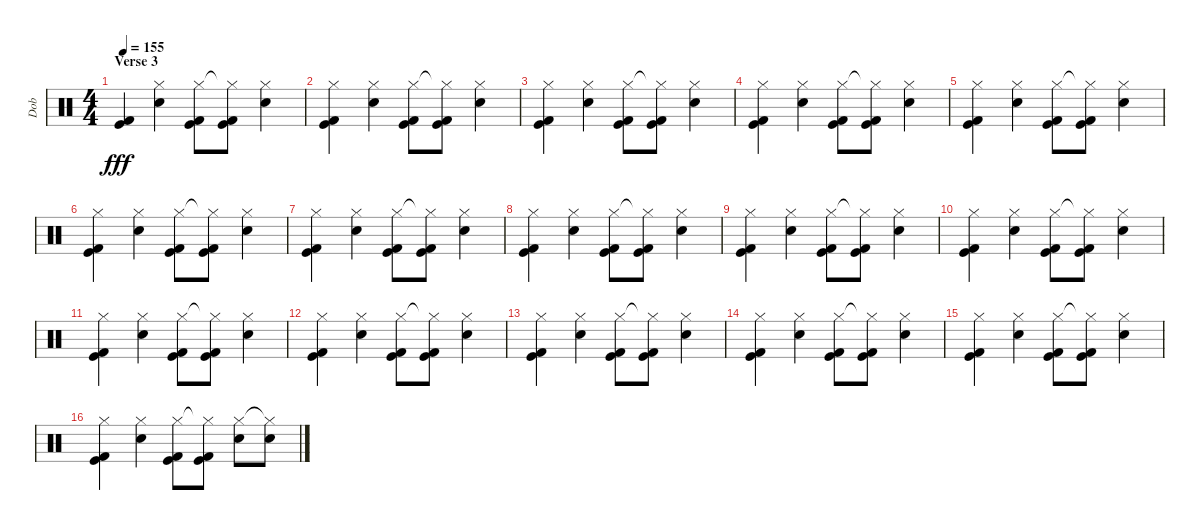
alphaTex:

\track ("Dob" "Dob") {instrument percussion}
\staff {score}
\articulation defaults
\ts (4 4)
\section ("" "Verse 3")
\tempo 155
\clef neutral
\ks c
("Kick (hit) 2" "Kick (hit)").4{dy fff} ("Hi-Hat (closed)" "Electric Snare (hit)").4 ("Hi-Hat (closed)" "Kick (hit) 2" "Kick (hit)").8 ("Hi-Hat (closed)"{t} "Kick (hit) 2" "Kick (hit)").8 ("Hi-Hat (closed)" "Electric Snare (hit)").4 |
("Hi-Hat (closed)" "Kick (hit) 2" "Kick (hit)").4 ("Hi-Hat (closed)" "Electric Snare (hit)").4 ("Hi-Hat (closed)" "Kick (hit) 2" "Kick (hit)").8 ("Hi-Hat (closed)"{t} "Kick (hit) 2" "Kick (hit)").8 ("Hi-Hat (closed)" "Electric Snare (hit)").4 |
("Hi-Hat (closed)" "Kick (hit) 2" "Kick (hit)").4 ("Hi-Hat (closed)" "Electric Snare (hit)").4 ("Hi-Hat (closed)" "Kick (hit) 2" "Kick (hit)").8 ("Hi-Hat (closed)"{t} "Kick (hit) 2" "Kick (hit)").8 ("Hi-Hat (closed)" "Electric Snare (hit)").4 |
("Hi-Hat (closed)" "Kick (hit) 2" "Kick (hit)").4 ("Hi-Hat (closed)" "Electric Snare (hit)").4 ("Hi-Hat (closed)" "Kick (hit) 2" "Kick (hit)").8 ("Hi-Hat (closed)"{t} "Kick (hit) 2" "Kick (hit)").8 ("Hi-Hat (closed)" "Electric Snare (hit)").4 |
("Hi-Hat (closed)" "Kick (hit) 2" "Kick (hit)").4 ("Hi-Hat (closed)" "Electric Snare (hit)").4 ("Hi-Hat (closed)" "Kick (hit) 2" "Kick (hit)").8 ("Hi-Hat (closed)"{t} "Kick (hit) 2" "Kick (hit)").8 ("Hi-Hat (closed)" "Electric Snare (hit)").4 |
("Hi-Hat (closed)" "Kick (hit) 2" "Kick (hit)").4 ("Hi-Hat (closed)" "Electric Snare (hit)").4 ("Hi-Hat (closed)" "Kick (hit) 2" "Kick (hit)").8 ("Hi-Hat (closed)"{t} "Kick (hit) 2" "Kick (hit)").8 ("Hi-Hat (closed)" "Electric Snare (hit)").4 |
("Hi-Hat (closed)" "Kick (hit) 2" "Kick (hit)").4 ("Hi-Hat (closed)" "Electric Snare (hit)").4 ("Hi-Hat (closed)" "Kick (hit) 2" "Kick (hit)").8 ("Hi-Hat (closed)"{t} "Kick (hit) 2" "Kick (hit)").8 ("Hi-Hat (closed)" "Electric Snare (hit)").4 |
("Hi-Hat (closed)" "Kick (hit) 2" "Kick (hit)").4 ("Hi-Hat (closed)" "Electric Snare (hit)").4 ("Hi-Hat (closed)" "Kick (hit) 2" "Kick (hit)").8 ("Hi-Hat (closed)"{t} "Kick (hit) 2" "Kick (hit)").8 ("Hi-Hat (closed)" "Electric Snare (hit)").4 |
("Hi-Hat (closed)" "Kick (hit) 2" "Kick (hit)").4 ("Hi-Hat (closed)" "Electric Snare (hit)").4 ("Hi-Hat (closed)" "Kick (hit) 2" "Kick (hit)").8 ("Hi-Hat (closed)"{t} "Kick (hit) 2" "Kick (hit)").8 ("Hi-Hat (closed)" "Electric Snare (hit)").4 |
("Hi-Hat (closed)" "Kick (hit) 2" "Kick (hit)").4 ("Hi-Hat (closed)" "Electric Snare (hit)").4 ("Hi-Hat (closed)" "Kick (hit) 2" "Kick (hit)").8 ("Hi-Hat (closed)"{t} "Kick (hit) 2" "Kick (hit)").8 ("Hi-Hat (closed)" "Electric Snare (hit)").4 |
("Hi-Hat (closed)" "Kick (hit) 2" "Kick (hit)").4 ("Hi-Hat (closed)" "Electric Snare (hit)").4 ("Hi-Hat (closed)" "Kick (hit) 2" "Kick (hit)").8 ("Hi-Hat (closed)"{t} "Kick (hit) 2" "Kick (hit)").8 ("Hi-Hat (closed)" "Electric Snare (hit)").4 |
("Hi-Hat (closed)" "Kick (hit) 2" "Kick (hit)").4 ("Hi-Hat (closed)" "Electric Snare (hit)").4 ("Hi-Hat (closed)" "Kick (hit) 2" "Kick (hit)").8 ("Hi-Hat (closed)"{t} "Kick (hit) 2" "Kick (hit)").8 ("Hi-Hat (closed)" "Electric Snare (hit)").4 |
("Hi-Hat (closed)" "Kick (hit) 2" "Kick (hit)").4 ("Hi-Hat (closed)" "Electric Snare (hit)").4 ("Hi-Hat (closed)" "Kick (hit) 2" "Kick (hit)").8 ("Hi-Hat (closed)"{t} "Kick (hit) 2" "Kick (hit)").8 ("Hi-Hat (closed)" "Electric Snare (hit)").4 |
("Hi-Hat (closed)" "Kick (hit) 2" "Kick (hit)").4 ("Hi-Hat (closed)" "Electric Snare (hit)").4 ("Hi-Hat (closed)" "Kick (hit) 2" "Kick (hit)").8 ("Hi-Hat (closed)"{t} "Kick (hit) 2" "Kick (hit)").8 ("Hi-Hat (closed)" "Electric Snare (hit)").4 |
("Hi-Hat (closed)" "Kick (hit) 2" "Kick (hit)").4 ("Hi-Hat (closed)" "Electric Snare (hit)").4 ("Hi-Hat (closed)" "Kick (hit) 2" "Kick (hit)").8 ("Hi-Hat (closed)"{t} "Kick (hit) 2" "Kick (hit)").8 ("Hi-Hat (closed)" "Electric Snare (hit)").4 |
("Hi-Hat (closed)" "Kick (hit) 2" "Kick (hit)").4 ("Hi-Hat (closed)" "Electric Snare (hit)").4 ("Hi-Hat (closed)" "Kick (hit) 2" "Kick (hit)").8 ("Hi-Hat (closed)"{t} "Kick (hit) 2" "Kick (hit)").8 ("Hi-Hat (closed)" "Electric Snare (hit)").8 ("Hi-Hat (closed)"{t} "Electric Snare (hit)").8
